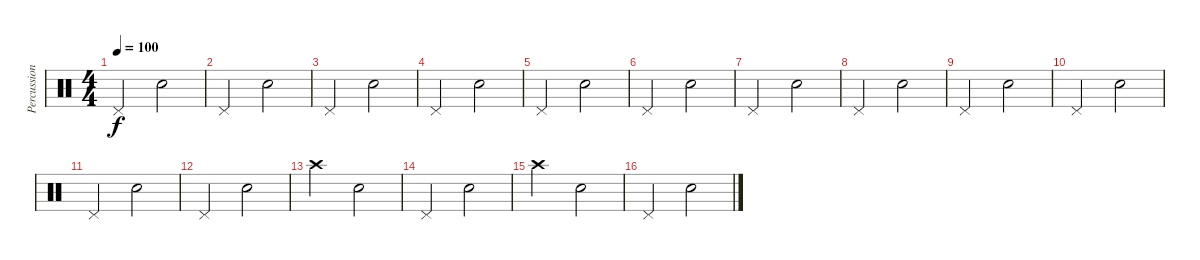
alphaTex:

\track ("Percussioni" "Percussion") {instrument percussion}
\staff {score}
\articulation defaults
\ts (4 4)
\tempo 100
\clef neutral
\ks c "Pedal Hi-Hat (hit)".2{dy f} "Snare (hit) 2".2
|
"Pedal Hi-Hat (hit)".2 "Snare (hit) 2".2 |
"Pedal Hi-Hat (hit)".2 "Snare (hit) 2".2 |
"Pedal Hi-Hat (hit)".2 "Snare (hit) 2".2 |
"Pedal Hi-Hat (hit)".2 "Snare (hit) 2".2 |
"Pedal Hi-Hat (hit)".2 "Snare (hit) 2".2 |
"Pedal Hi-Hat (hit)".2 "Snare (hit) 2".2 |
"Pedal Hi-Hat (hit)".2 "Snare (hit) 2".2 |
"Pedal Hi-Hat (hit)".2 "Snare (hit) 2".2 |
"Pedal Hi-Hat (hit)".2 "Snare (hit) 2".2 |
"Pedal Hi-Hat (hit)".2 "Snare (hit) 2".2 |
"Pedal Hi-Hat (hit)".2 "Snare (hit) 2".2 |
"Crash high (hit)".2 "Snare (hit) 2".2 |
"Pedal Hi-Hat (hit)".2 "Snare (hit) 2".2 |
"Crash high (hit)".2 "Snare (hit) 2".2 |
"Pedal Hi-Hat (hit)".2 "Snare (hit) 2".2
